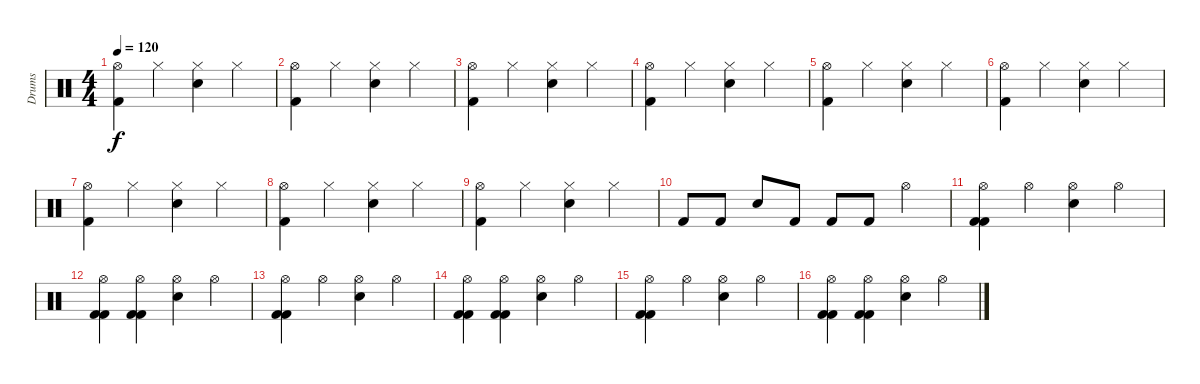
\track ("Drums" "Drums") {instrument percussion}
\staff {score}
\articulation defaults
\ts (4 4)
\tempo 120
\clef neutral
\ks c
("Hi-Hat (open)" "Kick (hit) 2").4{dy f} "Hi-Hat (closed)".4 ("Hi-Hat (closed)" "Electric Snare (hit)").4 "Hi-Hat (closed)".4 |
("Hi-Hat (open)" "Kick (hit) 2").4 "Hi-Hat (closed)".4 ("Hi-Hat (closed)" "Electric Snare (hit)").4 "Hi-Hat (closed)".4 |
("Hi-Hat (open)" "Kick (hit) 2").4 "Hi-Hat (closed)".4 ("Hi-Hat (closed)" "Electric Snare (hit)").4 "Hi-Hat (closed)".4 |
("Hi-Hat (open)" "Kick (hit) 2").4 "Hi-Hat (closed)".4 ("Hi-Hat (closed)" "Electric Snare (hit)").4 "Hi-Hat (closed)".4 |
("Hi-Hat (open)" "Kick (hit) 2").4 "Hi-Hat (closed)".4 ("Hi-Hat (closed)" "Electric Snare (hit)").4 "Hi-Hat (closed)".4 |
("Hi-Hat (open)" "Kick (hit) 2").4 "Hi-Hat (closed)".4 ("Hi-Hat (closed)" "Electric Snare (hit)").4 "Hi-Hat (closed)".4 |
("Hi-Hat (open)" "Kick (hit) 2").4 "Hi-Hat (closed)".4 ("Hi-Hat (closed)" "Electric Snare (hit)").4 "Hi-Hat (closed)".4 |
("Hi-Hat (open)" "Kick (hit) 2").4 "Hi-Hat (closed)".4 ("Hi-Hat (closed)" "Electric Snare (hit)").4 "Hi-Hat (closed)".4 |
("Hi-Hat (open)" "Kick (hit) 2").4 "Hi-Hat (closed)".4 ("Hi-Hat (closed)" "Electric Snare (hit)").4 "Hi-Hat (closed)".4 |
"Kick (hit) 2".8 "Kick (hit) 2".8 "Electric Snare (hit)".8 "Kick (hit) 2".8 "Kick (hit) 2".8 "Kick (hit) 2".8 "Hi-Hat (open)".4 |
("Hi-Hat (open)" "Kick (hit) 2" "Kick (hit) 2").4 "Hi-Hat (open)".4 ("Hi-Hat (open)" "Electric Snare (hit)").4 "Hi-Hat (open)".4 |
("Hi-Hat (open)" "Kick (hit) 2" "Kick (hit) 2").4 ("Hi-Hat (open)" "Kick (hit) 2" "Kick (hit) 2").4 ("Hi-Hat (open)" "Electric Snare (hit)").4 "Hi-Hat (open)".4 |
("Hi-Hat (open)" "Kick (hit) 2" "Kick (hit) 2").4 "Hi-Hat (open)".4 ("Hi-Hat (open)" "Electric Snare (hit)").4 "Hi-Hat (open)".4 |
("Hi-Hat (open)" "Kick (hit) 2" "Kick (hit) 2").4 ("Hi-Hat (open)" "Kick (hit) 2" "Kick (hit) 2").4 ("Hi-Hat (open)" "Electric Snare (hit)").4 "Hi-Hat (open)".4 |
("Hi-Hat (open)" "Kick (hit) 2" "Kick (hit) 2").4 "Hi-Hat (open)".4 ("Hi-Hat (open)" "Electric Snare (hit)").4 "Hi-Hat (open)".4 |
("Hi-Hat (open)" "Kick (hit) 2" "Kick (hit) 2").4 ("Hi-Hat (open)" "Kick (hit) 2" "Kick (hit) 2").4 ("Hi-Hat (open)" "Electric Snare (hit)").4 "Hi-Hat (open)".4
